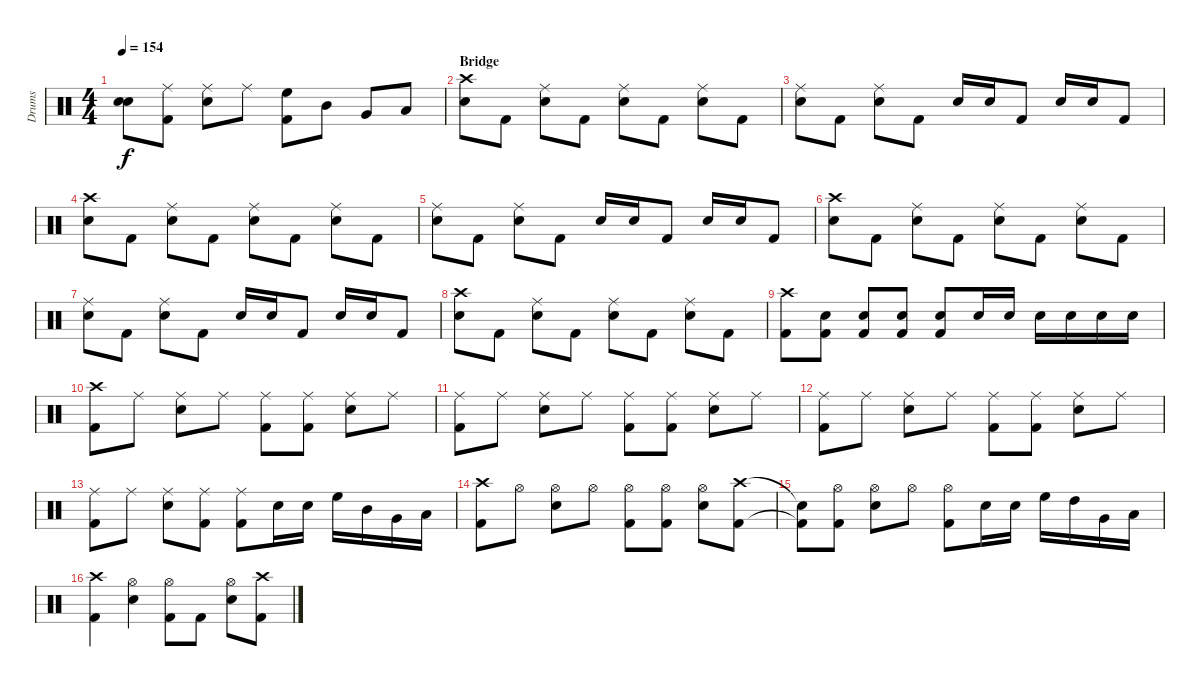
\track ("Drums" "Drums") {instrument percussion}
\staff {score}
\articulation defaults
\ts (4 4)
\tempo 154
\clef neutral
\ks c
("Snare (hit)"{t} "Snare (hit)"{t}).8{dy f} ("Ride (middle)" "Kick (hit) 2").8 ("Ride (middle)" "Electric Snare (hit)").8 "Ride (middle)".8 ("High Floor Tom (hit)" "Kick (hit) 2").8 "Mid Tom (hit)".8 "Very Low Tom (hit)".8 "Low Floor Tom (hit)".8 |
\section ("" "Bridge")
("Crash high (hit)" "Electric Snare (hit)").8 "Kick (hit) 2".8 ("Ride (middle)" "Electric Snare (hit)").8 "Kick (hit) 2".8 ("Ride (middle)" "Electric Snare (hit)").8 "Kick (hit) 2".8 ("Ride (middle)" "Electric Snare (hit)").8 "Kick (hit) 2".8 |
("Ride (middle)" "Electric Snare (hit)").8 "Kick (hit) 2".8 ("Ride (middle)" "Electric Snare (hit)").8 "Kick (hit) 2".8 "Electric Snare (hit)".16 "Electric Snare (hit)".16 "Kick (hit) 2".8 "Electric Snare (hit)".16 "Electric Snare (hit)".16 "Kick (hit) 2".8 |
("Crash high (hit)" "Electric Snare (hit)").8 "Kick (hit) 2".8 ("Ride (middle)" "Electric Snare (hit)").8 "Kick (hit) 2".8 ("Ride (middle)" "Electric Snare (hit)").8 "Kick (hit) 2".8 ("Ride (middle)" "Electric Snare (hit)").8 "Kick (hit) 2".8 |
("Ride (middle)" "Electric Snare (hit)").8 "Kick (hit) 2".8 ("Ride (middle)" "Electric Snare (hit)").8 "Kick (hit) 2".8 "Electric Snare (hit)".16 "Electric Snare (hit)".16 "Kick (hit) 2".8 "Electric Snare (hit)".16 "Electric Snare (hit)".16 "Kick (hit) 2".8 |
("Crash high (hit)" "Electric Snare (hit)").8 "Kick (hit) 2".8 ("Ride (middle)" "Electric Snare (hit)").8 "Kick (hit) 2".8 ("Ride (middle)" "Electric Snare (hit)").8 "Kick (hit) 2".8 ("Ride (middle)" "Electric Snare (hit)").8 "Kick (hit) 2".8 |
("Ride (middle)" "Electric Snare (hit)").8 "Kick (hit) 2".8 ("Ride (middle)" "Electric Snare (hit)").8 "Kick (hit) 2".8 "Electric Snare (hit)".16 "Electric Snare (hit)".16 "Kick (hit) 2".8 "Electric Snare (hit)".16 "Electric Snare (hit)".16 "Kick (hit) 2".8 |
("Crash high (hit)" "Electric Snare (hit)").8 "Kick (hit) 2".8 ("Ride (middle)" "Electric Snare (hit)").8 "Kick (hit) 2".8 ("Ride (middle)" "Electric Snare (hit)").8 "Kick (hit) 2".8 ("Ride (middle)" "Electric Snare (hit)").8 "Kick (hit) 2".8 |
("Crash high (hit)" "Kick (hit) 2").8 ("Electric Snare (hit)" "Kick (hit) 2").8 ("Electric Snare (hit)" "Kick (hit) 2").8 ("Electric Snare (hit)" "Kick (hit) 2").8 ("Electric Snare (hit)" "Kick (hit) 2").8 "Electric Snare (hit)".16 "Electric Snare (hit)".16 "Electric Snare (hit)".16 "Electric Snare (hit)".16 "Electric Snare (hit)".16 "Electric Snare (hit)".16 |
("Crash high (hit)" "Kick (hit) 2").8 "Ride (middle)".8 ("Ride (middle)" "Electric Snare (hit)").8 "Ride (middle)".8 ("Ride (middle)" "Kick (hit) 2").8 ("Ride (middle)" "Kick (hit) 2").8 ("Ride (middle)" "Electric Snare (hit)").8 "Ride (middle)".8 |
("Ride (middle)" "Kick (hit) 2").8 "Ride (middle)".8 ("Ride (middle)" "Electric Snare (hit)").8 "Ride (middle)".8 ("Ride (middle)" "Kick (hit) 2").8 ("Ride (middle)" "Kick (hit) 2").8 ("Ride (middle)" "Electric Snare (hit)").8 "Ride (middle)".8 |
("Ride (middle)" "Kick (hit) 2").8 "Ride (middle)".8 ("Ride (middle)" "Electric Snare (hit)").8 "Ride (middle)".8 ("Ride (middle)" "Kick (hit) 2").8 ("Ride (middle)" "Kick (hit) 2").8 ("Ride (middle)" "Electric Snare (hit)").8 "Ride (middle)".8 |
("Ride (middle)" "Kick (hit) 2").8 "Ride (middle)".8 ("Ride (middle)" "Electric Snare (hit)").8 ("Ride (middle)" "Kick (hit) 2").8 ("Ride (middle)" "Kick (hit) 2").8 "Electric Snare (hit)".16 "Electric Snare (hit)".16 "High Floor Tom (hit)".16 "Mid Tom (hit)".16 "Very Low Tom (hit)".16 "Low Floor Tom (hit)".16 |
("Crash high (hit)" "Kick (hit) 2").8 "Hi-Hat (open)".8 ("Hi-Hat (open)" "Electric Snare (hit)").8 "Hi-Hat (open)".8 ("Hi-Hat (open)" "Kick (hit) 2").8 ("Hi-Hat (open)" "Kick (hit) 2").8 ("Hi-Hat (open)" "Electric Snare (hit)").8 ("Crash high (hit)" "Kick (hit) 2").8 |
("Snare (hit)"{t} "Kick (hit) 2"{t}).8 ("Hi-Hat (open)" "Kick (hit) 2").8 ("Hi-Hat (open)" "Electric Snare (hit)").8 "Hi-Hat (open)".8 ("Hi-Hat (open)" "Kick (hit) 2").8 "Electric Snare (hit)".16 "Electric Snare (hit)".16 "High Floor Tom (hit)".16 "High Tom (hit)".16 "Very Low Tom (hit)".16 "Low Floor Tom (hit)".16 |
("Crash high (hit)" "Kick (hit) 2").4 ("Hi-Hat (open)" "Electric Snare (hit)").4 ("Hi-Hat (open)" "Kick (hit) 2").8 "Kick (hit) 2".8 ("Hi-Hat (open)" "Electric Snare (hit)").8 ("Crash high (hit)" "Kick (hit) 2").8
